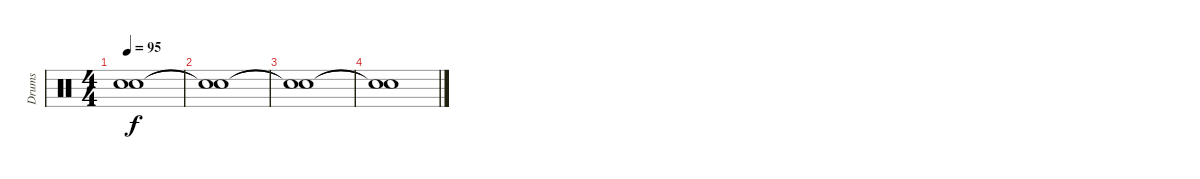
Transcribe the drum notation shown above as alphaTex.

\track ("Drums" "Drums") {instrument percussion}
\staff {score}
\articulation defaults
\ts (4 4)
\tempo 95
\clef neutral
\ks c
("Snare (hit)"{t} "Snare (hit)"{t}).1{dy f} |
("Snare (hit)"{t} "Snare (hit)"{t}).1 |
("Snare (hit)"{t} "Snare (hit)"{t}).1 |
("Snare (hit)"{t} "Snare (hit)"{t}).1
